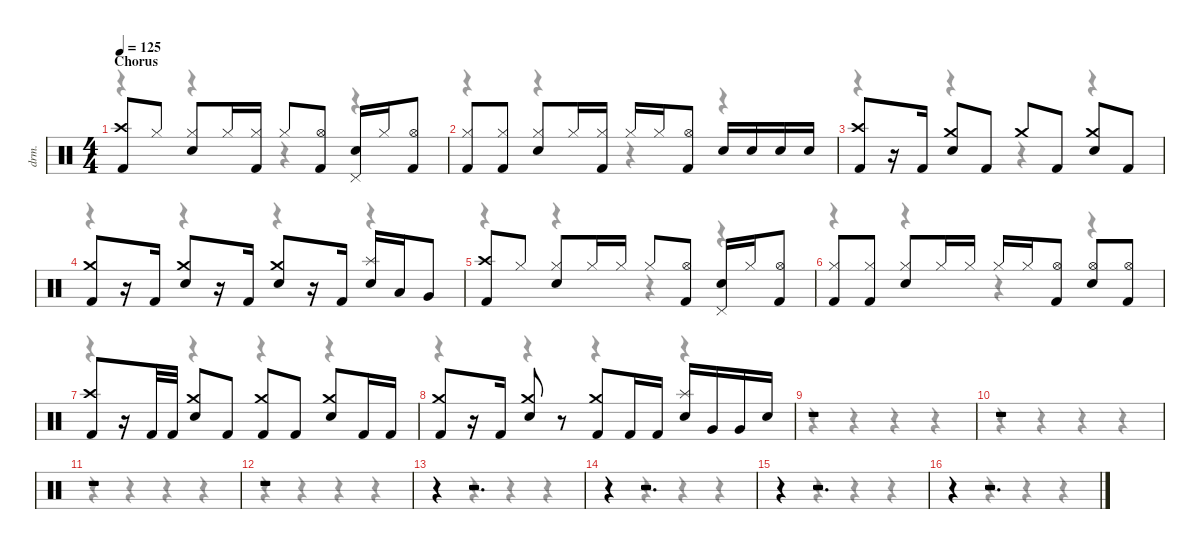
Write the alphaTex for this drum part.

\defaultSystemsLayout 4
\hideDynamics
\bracketExtendMode nobrackets
\otherSystemsTrackNameOrientation horizontal
\track ("Drums" "drm.") {instrument percussion}
\staff {score}
\articulation defaults
\voice
\ts (4 4)
\section ("" "Chorus")
\tempo 125
\clef neutral
\ks c
("Crash high (hit)" "Kick (hit) 2").8{dy f} "Hi-Hat (closed)".8 ("Hi-Hat (closed)" "Snare (hit) 2").8 "Hi-Hat (closed)".16 ("Hi-Hat (closed)" "Kick (hit) 2").16 "Hi-Hat (closed)".8 ("Hi-Hat (open)" "Kick (hit) 2").8 ("Pedal Hi-Hat (hit)" "Snare (hit) 2").16 "Hi-Hat (closed)".16 ("Hi-Hat (open)" "Kick (hit) 2").8 |
("Hi-Hat (closed)" "Kick (hit) 2").8 ("Hi-Hat (closed)" "Kick (hit) 2").8 ("Hi-Hat (closed)" "Snare (hit) 2").8 "Hi-Hat (closed)".16 ("Hi-Hat (closed)" "Kick (hit) 2").16 "Hi-Hat (closed)".16 "Hi-Hat (closed)".16 ("Hi-Hat (open)" "Kick (hit) 2").8 "Snare (hit) 2".16 "Snare (hit) 2".16 "Snare (hit) 2".16 "Snare (hit) 2".16 |
("Crash high (hit)" "Kick (hit) 2").8 r.16 "Kick (hit) 2".16 ("Crash medium (hit)" "Snare (hit) 2").8 "Kick (hit) 2".8 "Crash medium (hit)".8 "Kick (hit) 2".8 ("Crash medium (hit)" "Snare (hit) 2").8 "Kick (hit) 2".8 |
("Crash medium (hit)" "Kick (hit) 2").8 r.16 "Kick (hit) 2".16 ("Crash medium (hit)" "Snare (hit) 2").8 r.16 "Kick (hit) 2".16 ("Crash medium (hit)" "Snare (hit) 2").8 r.16 "Kick (hit) 2".16 ("Splash (hit)" "Snare (hit) 2").16 "Low Tom (hit)".16 "Very Low Tom (hit)".8 |
("Crash high (hit)" "Kick (hit) 2").8 "Hi-Hat (closed)".8 ("Hi-Hat (closed)" "Snare (hit) 2").8 "Hi-Hat (closed)".16 "Hi-Hat (closed)".16 "Hi-Hat (closed)".8 ("Hi-Hat (open)" "Kick (hit) 2").8 ("Pedal Hi-Hat (hit)" "Snare (hit) 2").16 "Hi-Hat (closed)".16 ("Hi-Hat (open)" "Kick (hit) 2").8 |
("Hi-Hat (closed)" "Kick (hit) 2").8 ("Hi-Hat (closed)" "Kick (hit) 2").8 ("Hi-Hat (closed)" "Snare (hit) 2").8 "Hi-Hat (closed)".16 "Hi-Hat (closed)".16 "Hi-Hat (closed)".16 "Hi-Hat (closed)".16 ("Hi-Hat (open)" "Kick (hit) 2").8 ("Hi-Hat (open)" "Snare (hit) 2").8 ("Hi-Hat (open)" "Kick (hit) 2").8 |
("Crash high (hit)" "Kick (hit) 2").8 r.16 "Kick (hit) 2".32 "Kick (hit) 2".32 ("Crash medium (hit)" "Snare (hit) 2").8 "Kick (hit) 2".8 ("Crash medium (hit)" "Kick (hit) 2").8 "Kick (hit) 2".8 ("Crash medium (hit)" "Snare (hit) 2").8 "Kick (hit) 2".16 "Kick (hit) 2".16 |
("Crash medium (hit)" "Kick (hit) 2").8 r.16 "Kick (hit) 2".16 ("Crash medium (hit)" "Snare (hit) 2").8 r.8 ("Crash medium (hit)" "Kick (hit) 2").8 "Kick (hit) 2".16 "Kick (hit) 2".16 ("Splash (hit)" "Snare (hit) 2").16 "Very Low Tom (hit)".16 "Very Low Tom (hit)".16 "Snare (hit) 2".16 |
r.1 |
r.1 |
r.1 |
r.1 |
r.4 r.2{d} |
r.4 r.2{d} |
r.4 r.2{d} |
r.4 r.2{d}
\voice
\clef neutral
\ottava regular
\simile none
\ks c
r.4{dy mf} r.4 r.4 r.4 |
r.4 r.4 r.4 r.4 |
r.4 r.4 r.4 r.4 |
r.4 r.4 r.4 r.4 |
r.4 r.4 r.4 r.4 |
r.4 r.4 r.4 r.4 |
r.4 r.4 r.4 r.4 |
r.4 r.4 r.4 r.4 |
r.4 r.4 r.4 r.4 |
r.4 r.4 r.4 r.4 |
r.4 r.4 r.4 r.4 |
r.4 r.4 r.4 r.4 |
r.4 r.4 r.4 r.4 |
r.4 r.4 r.4 r.4 |
r.4 r.4 r.4 r.4 |
r.4 r.4 r.4 r.4
